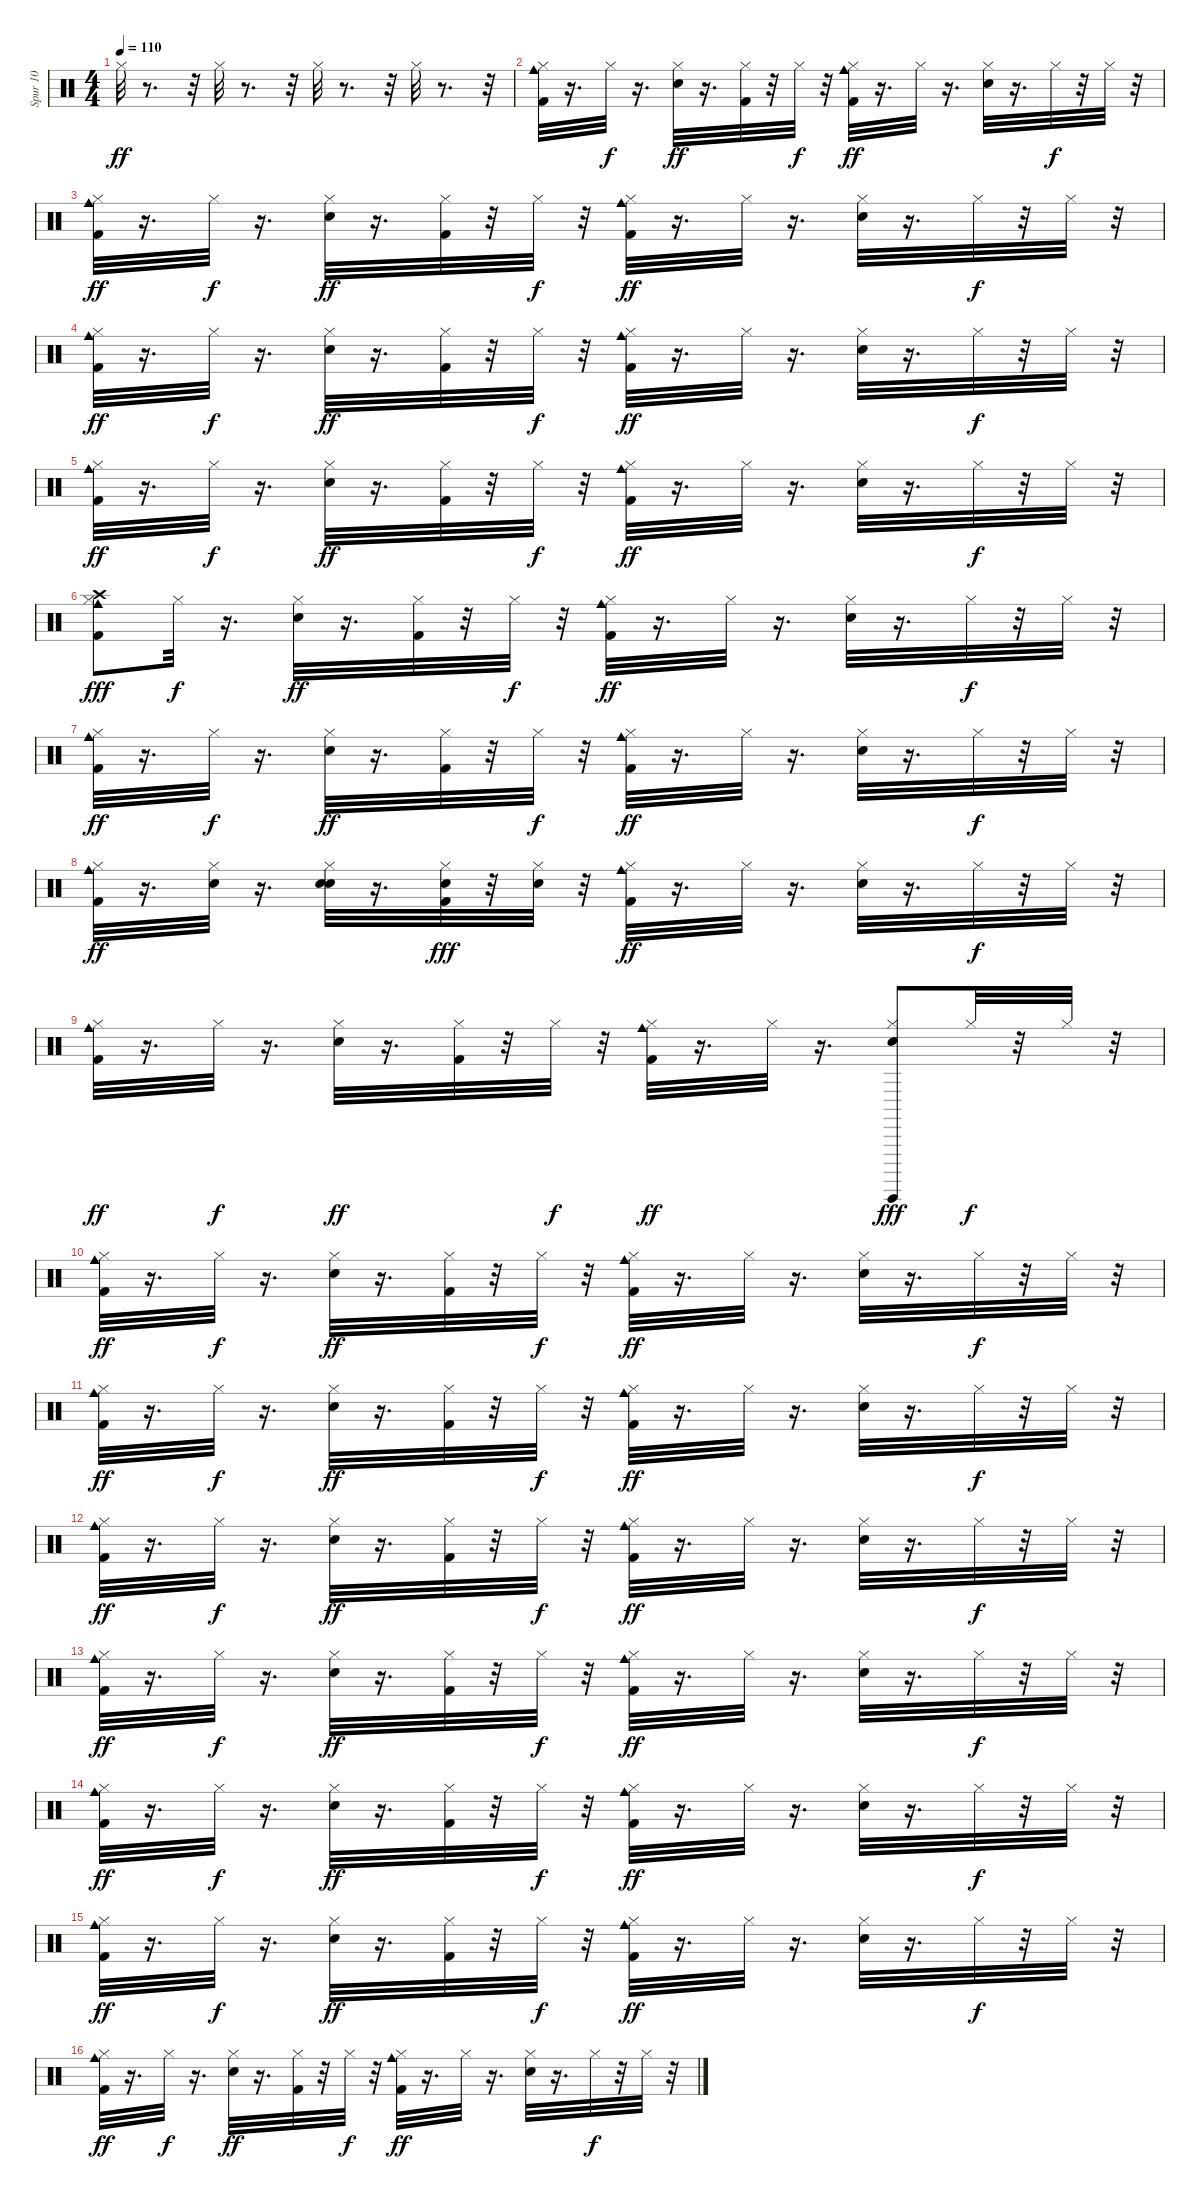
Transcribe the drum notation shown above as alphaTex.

\track ("Spur 10" "Spur 10") {instrument percussion}
\staff {score}
\articulation defaults
\ts (4 4)
\tempo 110
\clef neutral
\ks c "Hi-Hat (closed)".32{dy ff}
r.8{d} r.32 "Hi-Hat (closed)".32 r.8{d} r.32 "Hi-Hat (closed)".32 r.8{d} r.32 "Hi-Hat (closed)".32 r.8{d} r.32 |
("Kick (hit) 2" "Cowbell medium (hit)" "Hi-Hat (closed)").32 r.16{d} "Hi-Hat (closed)".32{dy f} r.16{d} ("Snare (hit) 2" "Hi-Hat (closed)").32{dy ff} r.16{d} ("Kick (hit) 2" "Hi-Hat (closed)").32 r.32 "Hi-Hat (closed)".32{dy f} r.32 ("Kick (hit) 2" "Cowbell medium (hit)" "Hi-Hat (closed)").32{dy ff} r.16{d} "Hi-Hat (closed)".32 r.16{d} ("Snare (hit) 2" "Hi-Hat (closed)").32 r.16{d} "Hi-Hat (closed)".32{dy f} r.32 "Hi-Hat (closed)".32 r.32 |
("Kick (hit) 2" "Cowbell medium (hit)" "Hi-Hat (closed)").32{dy ff} r.16{d} "Hi-Hat (closed)".32{dy f} r.16{d} ("Snare (hit) 2" "Hi-Hat (closed)").32{dy ff} r.16{d} ("Kick (hit) 2" "Hi-Hat (closed)").32 r.32 "Hi-Hat (closed)".32{dy f} r.32 ("Kick (hit) 2" "Cowbell medium (hit)" "Hi-Hat (closed)").32{dy ff} r.16{d} "Hi-Hat (closed)".32 r.16{d} ("Snare (hit) 2" "Hi-Hat (closed)").32 r.16{d} "Hi-Hat (closed)".32{dy f} r.32 "Hi-Hat (closed)".32 r.32 |
("Kick (hit) 2" "Cowbell medium (hit)" "Hi-Hat (closed)").32{dy ff} r.16{d} "Hi-Hat (closed)".32{dy f} r.16{d} ("Snare (hit) 2" "Hi-Hat (closed)").32{dy ff} r.16{d} ("Kick (hit) 2" "Hi-Hat (closed)").32 r.32 "Hi-Hat (closed)".32{dy f} r.32 ("Kick (hit) 2" "Cowbell medium (hit)" "Hi-Hat (closed)").32{dy ff} r.16{d} "Hi-Hat (closed)".32 r.16{d} ("Snare (hit) 2" "Hi-Hat (closed)").32 r.16{d} "Hi-Hat (closed)".32{dy f} r.32 "Hi-Hat (closed)".32 r.32 |
("Kick (hit) 2" "Cowbell medium (hit)" "Hi-Hat (closed)").32{dy ff} r.16{d} "Hi-Hat (closed)".32{dy f} r.16{d} ("Snare (hit) 2" "Hi-Hat (closed)").32{dy ff} r.16{d} ("Kick (hit) 2" "Hi-Hat (closed)").32 r.32 "Hi-Hat (closed)".32{dy f} r.32 ("Kick (hit) 2" "Cowbell medium (hit)" "Hi-Hat (closed)").32{dy ff} r.16{d} "Hi-Hat (closed)".32 r.16{d} ("Snare (hit) 2" "Hi-Hat (closed)").32 r.16{d} "Hi-Hat (closed)".32{dy f} r.32 "Hi-Hat (closed)".32 r.32 |
("Kick (hit) 2" "Cowbell medium (hit)" "Hi-Hat (closed)" "Crash high (hit)").8{dy fff} "Hi-Hat (closed)".32{dy f} r.16{d} ("Snare (hit) 2" "Hi-Hat (closed)").32{dy ff} r.16{d} ("Kick (hit) 2" "Hi-Hat (closed)").32 r.32 "Hi-Hat (closed)".32{dy f} r.32 ("Kick (hit) 2" "Cowbell medium (hit)" "Hi-Hat (closed)").32{dy ff} r.16{d} "Hi-Hat (closed)".32 r.16{d} ("Snare (hit) 2" "Hi-Hat (closed)").32 r.16{d} "Hi-Hat (closed)".32{dy f} r.32 "Hi-Hat (closed)".32 r.32 |
("Kick (hit) 2" "Cowbell medium (hit)" "Hi-Hat (closed)").32{dy ff} r.16{d} "Hi-Hat (closed)".32{dy f} r.16{d} ("Snare (hit) 2" "Hi-Hat (closed)").32{dy ff} r.16{d} ("Kick (hit) 2" "Hi-Hat (closed)").32 r.32 "Hi-Hat (closed)".32{dy f} r.32 ("Kick (hit) 2" "Cowbell medium (hit)" "Hi-Hat (closed)").32{dy ff} r.16{d} "Hi-Hat (closed)".32 r.16{d} ("Snare (hit) 2" "Hi-Hat (closed)").32 r.16{d} "Hi-Hat (closed)".32{dy f} r.32 "Hi-Hat (closed)".32 r.32 |
("Kick (hit) 2" "Cowbell medium (hit)" "Hi-Hat (closed)").32{dy ff} r.16{d} ("Hi-Hat (closed)" "Hand Clap (hit)").32 r.16{d} ("Snare (hit) 2" "Hand Clap (hit)" "Hi-Hat (closed)").32 r.16{d} ("Kick (hit) 2" "Hi-Hat (closed)" "Hand Clap (hit)").32{dy fff} r.32 ("Hand Clap (hit)" "Hi-Hat (closed)").32 r.32 ("Kick (hit) 2" "Cowbell medium (hit)" "Hi-Hat (closed)").32{dy ff} r.16{d} "Hi-Hat (closed)".32 r.16{d} ("Snare (hit) 2" "Hi-Hat (closed)").32 r.16{d} "Hi-Hat (closed)".32{dy f} r.32 "Hi-Hat (closed)".32 r.32 |
("Kick (hit) 2" "Cowbell medium (hit)" "Hi-Hat (closed)").32{dy ff} r.16{d} "Hi-Hat (closed)".32{dy f} r.16{d} ("Snare (hit) 2" "Hi-Hat (closed)").32{dy ff} r.16{d} ("Kick (hit) 2" "Hi-Hat (closed)").32 r.32 "Hi-Hat (closed)".32{dy f} r.32 ("Kick (hit) 2" "Cowbell medium (hit)" "Hi-Hat (closed)").32{dy ff} r.16{d} "Hi-Hat (closed)".32 r.16{d} ("Snare (hit) 2" "Hi-Hat (closed)" "Guiro (hit)").8{dy fff} "Hi-Hat (closed)".32{dy f} r.32 "Hi-Hat (closed)".32 r.32 |
("Kick (hit) 2" "Cowbell medium (hit)" "Hi-Hat (closed)").32{dy ff} r.16{d} "Hi-Hat (closed)".32{dy f} r.16{d} ("Snare (hit) 2" "Hi-Hat (closed)").32{dy ff} r.16{d} ("Kick (hit) 2" "Hi-Hat (closed)").32 r.32 "Hi-Hat (closed)".32{dy f} r.32 ("Kick (hit) 2" "Cowbell medium (hit)" "Hi-Hat (closed)").32{dy ff} r.16{d} "Hi-Hat (closed)".32 r.16{d} ("Snare (hit) 2" "Hi-Hat (closed)").32 r.16{d} "Hi-Hat (closed)".32{dy f} r.32 "Hi-Hat (closed)".32 r.32 |
("Kick (hit) 2" "Cowbell medium (hit)" "Hi-Hat (closed)").32{dy ff} r.16{d} "Hi-Hat (closed)".32{dy f} r.16{d} ("Snare (hit) 2" "Hi-Hat (closed)").32{dy ff} r.16{d} ("Kick (hit) 2" "Hi-Hat (closed)").32 r.32 "Hi-Hat (closed)".32{dy f} r.32 ("Kick (hit) 2" "Cowbell medium (hit)" "Hi-Hat (closed)").32{dy ff} r.16{d} "Hi-Hat (closed)".32 r.16{d} ("Snare (hit) 2" "Hi-Hat (closed)").32 r.16{d} "Hi-Hat (closed)".32{dy f} r.32 "Hi-Hat (closed)".32 r.32 |
("Kick (hit) 2" "Cowbell medium (hit)" "Hi-Hat (closed)").32{dy ff} r.16{d} "Hi-Hat (closed)".32{dy f} r.16{d} ("Snare (hit) 2" "Hi-Hat (closed)").32{dy ff} r.16{d} ("Kick (hit) 2" "Hi-Hat (closed)").32 r.32 "Hi-Hat (closed)".32{dy f} r.32 ("Kick (hit) 2" "Cowbell medium (hit)" "Hi-Hat (closed)").32{dy ff} r.16{d} "Hi-Hat (closed)".32 r.16{d} ("Snare (hit) 2" "Hi-Hat (closed)").32 r.16{d} "Hi-Hat (closed)".32{dy f} r.32 "Hi-Hat (closed)".32 r.32 |
("Kick (hit) 2" "Cowbell medium (hit)" "Hi-Hat (closed)").32{dy ff} r.16{d} "Hi-Hat (closed)".32{dy f} r.16{d} ("Snare (hit) 2" "Hi-Hat (closed)").32{dy ff} r.16{d} ("Kick (hit) 2" "Hi-Hat (closed)").32 r.32 "Hi-Hat (closed)".32{dy f} r.32 ("Kick (hit) 2" "Cowbell medium (hit)" "Hi-Hat (closed)").32{dy ff} r.16{d} "Hi-Hat (closed)".32 r.16{d} ("Snare (hit) 2" "Hi-Hat (closed)").32 r.16{d} "Hi-Hat (closed)".32{dy f} r.32 "Hi-Hat (closed)".32 r.32 |
("Kick (hit) 2" "Cowbell medium (hit)" "Hi-Hat (closed)").32{dy ff} r.16{d} "Hi-Hat (closed)".32{dy f} r.16{d} ("Snare (hit) 2" "Hi-Hat (closed)").32{dy ff} r.16{d} ("Kick (hit) 2" "Hi-Hat (closed)").32 r.32 "Hi-Hat (closed)".32{dy f} r.32 ("Kick (hit) 2" "Cowbell medium (hit)" "Hi-Hat (closed)").32{dy ff} r.16{d} "Hi-Hat (closed)".32 r.16{d} ("Snare (hit) 2" "Hi-Hat (closed)").32 r.16{d} "Hi-Hat (closed)".32{dy f} r.32 "Hi-Hat (closed)".32 r.32 |
("Kick (hit) 2" "Cowbell medium (hit)" "Hi-Hat (closed)").32{dy ff} r.16{d} "Hi-Hat (closed)".32{dy f} r.16{d} ("Snare (hit) 2" "Hi-Hat (closed)").32{dy ff} r.16{d} ("Kick (hit) 2" "Hi-Hat (closed)").32 r.32 "Hi-Hat (closed)".32{dy f} r.32 ("Kick (hit) 2" "Cowbell medium (hit)" "Hi-Hat (closed)").32{dy ff} r.16{d} "Hi-Hat (closed)".32 r.16{d} ("Snare (hit) 2" "Hi-Hat (closed)").32 r.16{d} "Hi-Hat (closed)".32{dy f} r.32 "Hi-Hat (closed)".32 r.32 |
("Kick (hit) 2" "Cowbell medium (hit)" "Hi-Hat (closed)").32{dy ff} r.16{d} "Hi-Hat (closed)".32{dy f} r.16{d} ("Snare (hit) 2" "Hi-Hat (closed)").32{dy ff} r.16{d} ("Kick (hit) 2" "Hi-Hat (closed)").32 r.32 "Hi-Hat (closed)".32{dy f} r.32 ("Kick (hit) 2" "Cowbell medium (hit)" "Hi-Hat (closed)").32{dy ff} r.16{d} "Hi-Hat (closed)".32 r.16{d} ("Snare (hit) 2" "Hi-Hat (closed)").32 r.16{d} "Hi-Hat (closed)".32{dy f} r.32 "Hi-Hat (closed)".32 r.32
